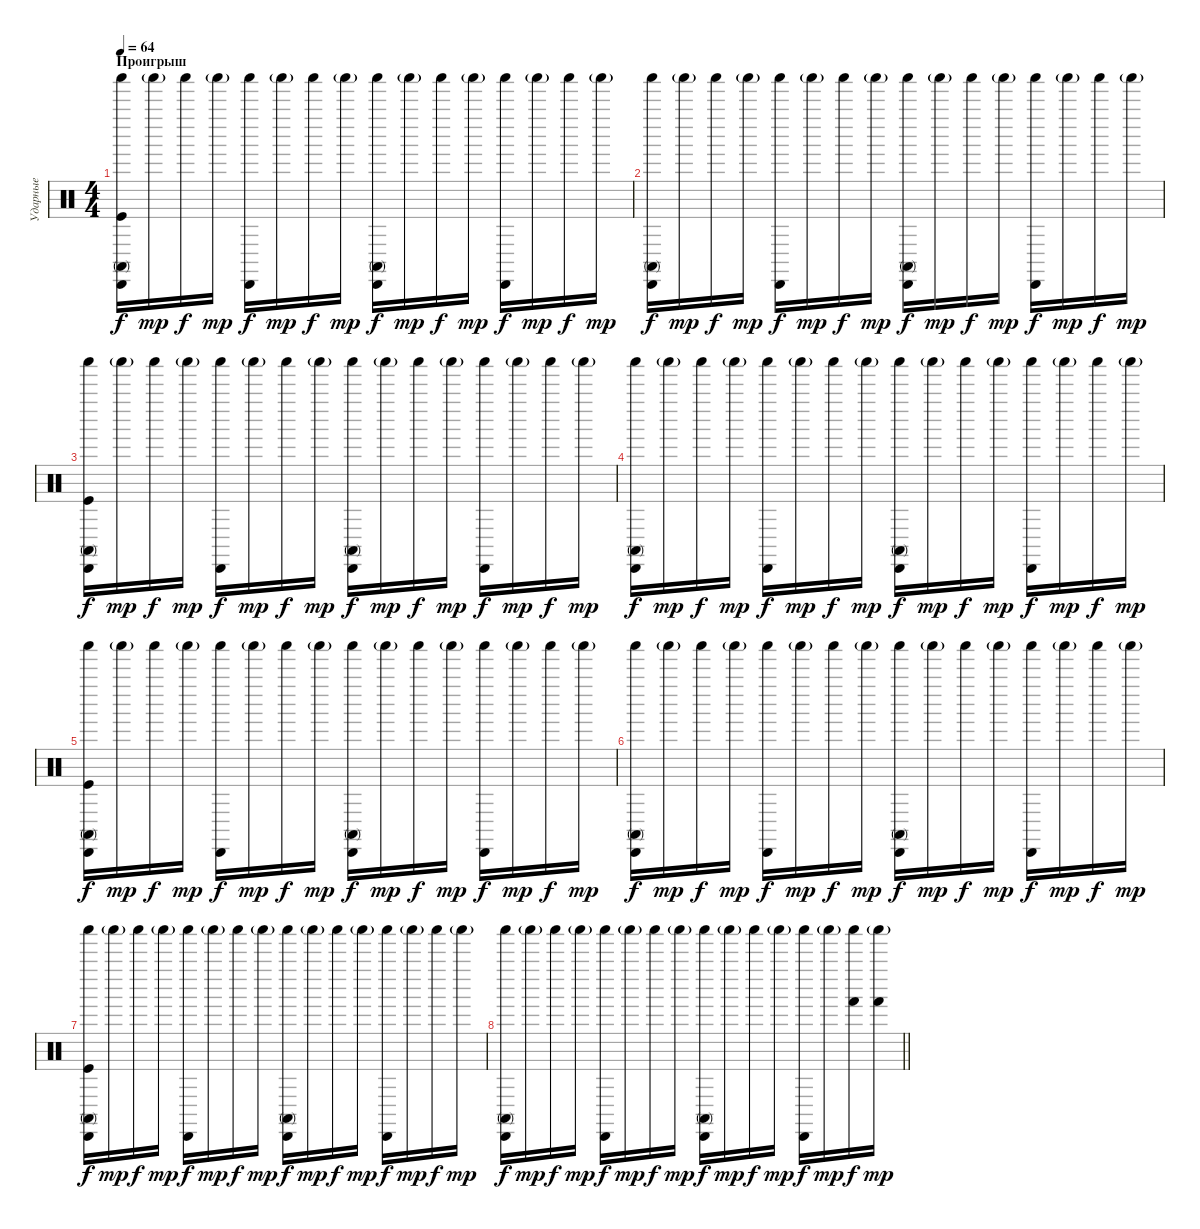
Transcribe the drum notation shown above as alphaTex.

\track ("Ударные" "Ударные") {instrument percussion}
\staff {score}
\articulation defaults
\ts (4 4)
\section ("" "Проигрыш")
\tempo 64
\clef neutral
\ks c
("Kick (hit)" "Conga high (mute)" "Cabasa (hit)" "Shaker (hit)").16{dy f} "Shaker (hit)"{g}.16{dy mp} "Shaker (hit)".16{dy f} "Shaker (hit)"{g}.16{dy mp} ("Cabasa (hit)" "Shaker (hit)").16{dy f} "Shaker (hit)"{g}.16{dy mp} "Shaker (hit)".16{dy f} "Shaker (hit)"{g}.16{dy mp} ("Conga high (mute)" "Cabasa (hit)" "Shaker (hit)").16{dy f} "Shaker (hit)"{g}.16{dy mp} "Shaker (hit)".16{dy f} "Shaker (hit)"{g}.16{dy mp} ("Cabasa (hit)" "Shaker (hit)").16{dy f} "Shaker (hit)"{g}.16{dy mp} "Shaker (hit)".16{dy f} "Shaker (hit)"{g}.16{dy mp} |
("Conga high (mute)" "Cabasa (hit)" "Shaker (hit)").16{dy f} "Shaker (hit)"{g}.16{dy mp} "Shaker (hit)".16{dy f} "Shaker (hit)"{g}.16{dy mp} ("Cabasa (hit)" "Shaker (hit)").16{dy f} "Shaker (hit)"{g}.16{dy mp} "Shaker (hit)".16{dy f} "Shaker (hit)"{g}.16{dy mp} ("Conga high (mute)" "Cabasa (hit)" "Shaker (hit)").16{dy f} "Shaker (hit)"{g}.16{dy mp} "Shaker (hit)".16{dy f} "Shaker (hit)"{g}.16{dy mp} ("Cabasa (hit)" "Shaker (hit)").16{dy f} "Shaker (hit)"{g}.16{dy mp} "Shaker (hit)".16{dy f} "Shaker (hit)"{g}.16{dy mp} |
("Kick (hit)" "Conga high (mute)" "Cabasa (hit)" "Shaker (hit)").16{dy f} "Shaker (hit)"{g}.16{dy mp} "Shaker (hit)".16{dy f} "Shaker (hit)"{g}.16{dy mp} ("Cabasa (hit)" "Shaker (hit)").16{dy f} "Shaker (hit)"{g}.16{dy mp} "Shaker (hit)".16{dy f} "Shaker (hit)"{g}.16{dy mp} ("Conga high (mute)" "Cabasa (hit)" "Shaker (hit)").16{dy f} "Shaker (hit)"{g}.16{dy mp} "Shaker (hit)".16{dy f} "Shaker (hit)"{g}.16{dy mp} ("Cabasa (hit)" "Shaker (hit)").16{dy f} "Shaker (hit)"{g}.16{dy mp} "Shaker (hit)".16{dy f} "Shaker (hit)"{g}.16{dy mp} |
("Conga high (mute)" "Cabasa (hit)" "Shaker (hit)").16{dy f} "Shaker (hit)"{g}.16{dy mp} "Shaker (hit)".16{dy f} "Shaker (hit)"{g}.16{dy mp} ("Cabasa (hit)" "Shaker (hit)").16{dy f} "Shaker (hit)"{g}.16{dy mp} "Shaker (hit)".16{dy f} "Shaker (hit)"{g}.16{dy mp} ("Conga high (mute)" "Cabasa (hit)" "Shaker (hit)").16{dy f} "Shaker (hit)"{g}.16{dy mp} "Shaker (hit)".16{dy f} "Shaker (hit)"{g}.16{dy mp} ("Cabasa (hit)" "Shaker (hit)").16{dy f} "Shaker (hit)"{g}.16{dy mp} "Shaker (hit)".16{dy f} "Shaker (hit)"{g}.16{dy mp} |
("Kick (hit)" "Conga high (mute)" "Cabasa (hit)" "Shaker (hit)").16{dy f} "Shaker (hit)"{g}.16{dy mp} "Shaker (hit)".16{dy f} "Shaker (hit)"{g}.16{dy mp} ("Cabasa (hit)" "Shaker (hit)").16{dy f} "Shaker (hit)"{g}.16{dy mp} "Shaker (hit)".16{dy f} "Shaker (hit)"{g}.16{dy mp} ("Conga high (mute)" "Cabasa (hit)" "Shaker (hit)").16{dy f} "Shaker (hit)"{g}.16{dy mp} "Shaker (hit)".16{dy f} "Shaker (hit)"{g}.16{dy mp} ("Cabasa (hit)" "Shaker (hit)").16{dy f} "Shaker (hit)"{g}.16{dy mp} "Shaker (hit)".16{dy f} "Shaker (hit)"{g}.16{dy mp} |
("Conga high (mute)" "Cabasa (hit)" "Shaker (hit)").16{dy f} "Shaker (hit)"{g}.16{dy mp} "Shaker (hit)".16{dy f} "Shaker (hit)"{g}.16{dy mp} ("Cabasa (hit)" "Shaker (hit)").16{dy f} "Shaker (hit)"{g}.16{dy mp} "Shaker (hit)".16{dy f} "Shaker (hit)"{g}.16{dy mp} ("Conga high (mute)" "Cabasa (hit)" "Shaker (hit)").16{dy f} "Shaker (hit)"{g}.16{dy mp} "Shaker (hit)".16{dy f} "Shaker (hit)"{g}.16{dy mp} ("Cabasa (hit)" "Shaker (hit)").16{dy f} "Shaker (hit)"{g}.16{dy mp} "Shaker (hit)".16{dy f} "Shaker (hit)"{g}.16{dy mp} |
("Kick (hit)" "Conga high (mute)" "Cabasa (hit)" "Shaker (hit)").16{dy f} "Shaker (hit)"{g}.16{dy mp} "Shaker (hit)".16{dy f} "Shaker (hit)"{g}.16{dy mp} ("Cabasa (hit)" "Shaker (hit)").16{dy f} "Shaker (hit)"{g}.16{dy mp} "Shaker (hit)".16{dy f} "Shaker (hit)"{g}.16{dy mp} ("Conga high (mute)" "Cabasa (hit)" "Shaker (hit)").16{dy f} "Shaker (hit)"{g}.16{dy mp} "Shaker (hit)".16{dy f} "Shaker (hit)"{g}.16{dy mp} ("Cabasa (hit)" "Shaker (hit)").16{dy f} "Shaker (hit)"{g}.16{dy mp} "Shaker (hit)".16{dy f} "Shaker (hit)"{g}.16{dy mp} |
\barLineRight lightlight
("Conga high (mute)" "Cabasa (hit)" "Shaker (hit)").16{dy f} "Shaker (hit)"{g}.16{dy mp} "Shaker (hit)".16{dy f} "Shaker (hit)"{g}.16{dy mp} ("Cabasa (hit)" "Shaker (hit)").16{dy f} "Shaker (hit)"{g}.16{dy mp} "Shaker (hit)".16{dy f} "Shaker (hit)"{g}.16{dy mp} ("Conga high (mute)" "Cabasa (hit)" "Shaker (hit)").16{dy f} "Shaker (hit)"{g}.16{dy mp} "Shaker (hit)".16{dy f} "Shaker (hit)"{g}.16{dy mp} ("Cabasa (hit)" "Shaker (hit)").16{dy f} "Shaker (hit)"{g}.16{dy mp} ("Hand (hit)" "Shaker (hit)").16{dy f} ("Hand (hit)" "Shaker (hit)"{g}).16{dy mp}
